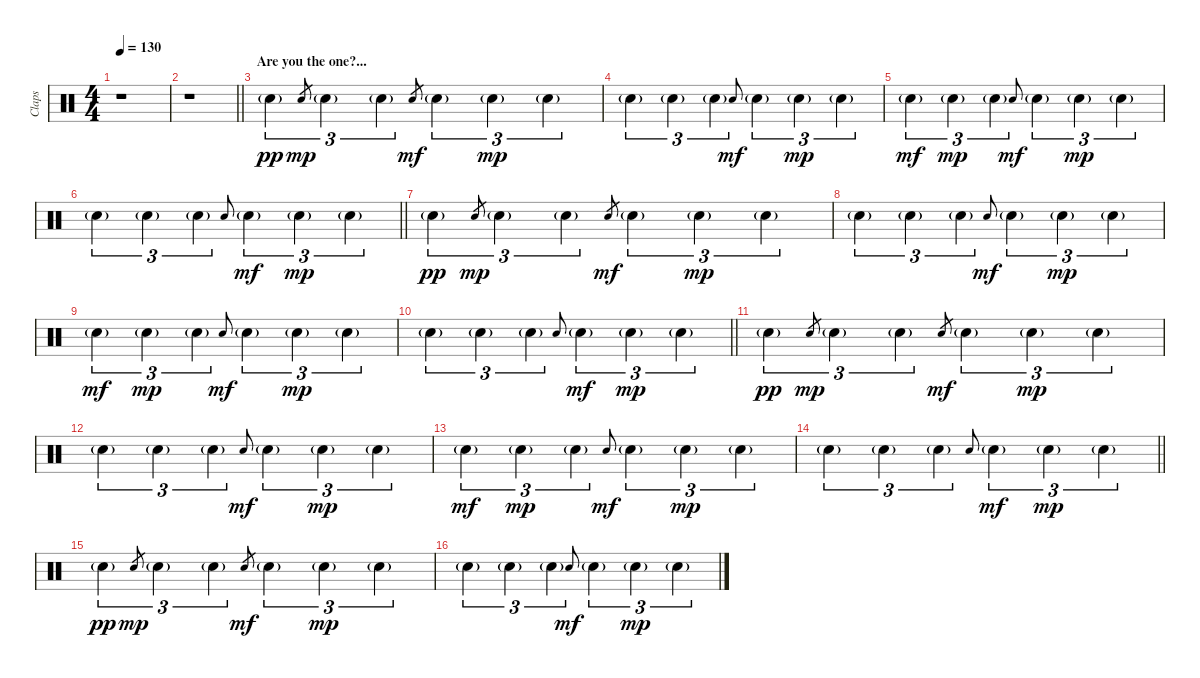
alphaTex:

\track ("Claps" "Claps") {instrument percussion}
\staff {score}
\articulation defaults
\ts (4 4)
\tempo 130
\clef neutral
\ks c
r.1{dy mp} |
\barLineRight lightlight
r.1 |
\section ("" "Are you the one?...")
"Hand Clap (hit)"{g}.4{tu (3 2) dy pp} "Hand Clap (hit)".8{gr dy mp} "Hand Clap (hit)"{g}.4{tu (3 2)} "Hand Clap (hit)"{g}.4{tu (3 2)} "Hand Clap (hit)".8{gr dy mf} "Hand Clap (hit)"{g}.4{tu (3 2)} "Hand Clap (hit)"{g}.4{tu (3 2) dy mp} "Hand Clap (hit)"{g}.4{tu (3 2)} |
"Hand Clap (hit)"{g}.4{tu (3 2)} "Hand Clap (hit)"{g}.4{tu (3 2)} "Hand Clap (hit)"{g}.4{tu (3 2)} "Hand Clap (hit)".8{gr onbeat dy mf} "Hand Clap (hit)"{g}.4{tu (3 2)} "Hand Clap (hit)"{g}.4{tu (3 2) dy mp} "Hand Clap (hit)"{g}.4{tu (3 2)} |
"Hand Clap (hit)"{g}.4{tu (3 2) dy mf} "Hand Clap (hit)"{g}.4{tu (3 2) dy mp} "Hand Clap (hit)"{g}.4{tu (3 2)} "Hand Clap (hit)".8{gr onbeat dy mf} "Hand Clap (hit)"{g}.4{tu (3 2)} "Hand Clap (hit)"{g}.4{tu (3 2) dy mp} "Hand Clap (hit)"{g}.4{tu (3 2)} |
\barLineRight lightlight "Hand Clap (hit)"{g}.4{tu (3 2)} "Hand Clap (hit)"{g}.4{tu (3 2)} "Hand Clap (hit)"{g}.4{tu (3 2)} "Hand Clap (hit)".8{gr onbeat} "Hand Clap (hit)"{g}.4{tu (3 2) dy mf} "Hand Clap (hit)"{g}.4{tu (3 2) dy mp} "Hand Clap (hit)"{g}.4{tu (3 2)}
|
"Hand Clap (hit)"{g}.4{tu (3 2) dy pp} "Hand Clap (hit)".8{gr dy mp} "Hand Clap (hit)"{g}.4{tu (3 2)} "Hand Clap (hit)"{g}.4{tu (3 2)} "Hand Clap (hit)".8{gr dy mf} "Hand Clap (hit)"{g}.4{tu (3 2)} "Hand Clap (hit)"{g}.4{tu (3 2) dy mp} "Hand Clap (hit)"{g}.4{tu (3 2)} |
"Hand Clap (hit)"{g}.4{tu (3 2)} "Hand Clap (hit)"{g}.4{tu (3 2)} "Hand Clap (hit)"{g}.4{tu (3 2)} "Hand Clap (hit)".8{gr onbeat dy mf} "Hand Clap (hit)"{g}.4{tu (3 2)} "Hand Clap (hit)"{g}.4{tu (3 2) dy mp} "Hand Clap (hit)"{g}.4{tu (3 2)} |
"Hand Clap (hit)"{g}.4{tu (3 2) dy mf} "Hand Clap (hit)"{g}.4{tu (3 2) dy mp} "Hand Clap (hit)"{g}.4{tu (3 2)} "Hand Clap (hit)".8{gr onbeat dy mf} "Hand Clap (hit)"{g}.4{tu (3 2)} "Hand Clap (hit)"{g}.4{tu (3 2) dy mp} "Hand Clap (hit)"{g}.4{tu (3 2)} |
\barLineRight lightlight "Hand Clap (hit)"{g}.4{tu (3 2)} "Hand Clap (hit)"{g}.4{tu (3 2)} "Hand Clap (hit)"{g}.4{tu (3 2)} "Hand Clap (hit)".8{gr onbeat} "Hand Clap (hit)"{g}.4{tu (3 2) dy mf} "Hand Clap (hit)"{g}.4{tu (3 2) dy mp} "Hand Clap (hit)"{g}.4{tu (3 2)}
|
"Hand Clap (hit)"{g}.4{tu (3 2) dy pp} "Hand Clap (hit)".8{gr dy mp} "Hand Clap (hit)"{g}.4{tu (3 2)} "Hand Clap (hit)"{g}.4{tu (3 2)} "Hand Clap (hit)".8{gr dy mf} "Hand Clap (hit)"{g}.4{tu (3 2)} "Hand Clap (hit)"{g}.4{tu (3 2) dy mp} "Hand Clap (hit)"{g}.4{tu (3 2)} |
"Hand Clap (hit)"{g}.4{tu (3 2)} "Hand Clap (hit)"{g}.4{tu (3 2)} "Hand Clap (hit)"{g}.4{tu (3 2)} "Hand Clap (hit)".8{gr onbeat dy mf} "Hand Clap (hit)"{g}.4{tu (3 2)} "Hand Clap (hit)"{g}.4{tu (3 2) dy mp} "Hand Clap (hit)"{g}.4{tu (3 2)} |
"Hand Clap (hit)"{g}.4{tu (3 2) dy mf} "Hand Clap (hit)"{g}.4{tu (3 2) dy mp} "Hand Clap (hit)"{g}.4{tu (3 2)} "Hand Clap (hit)".8{gr onbeat dy mf} "Hand Clap (hit)"{g}.4{tu (3 2)} "Hand Clap (hit)"{g}.4{tu (3 2) dy mp} "Hand Clap (hit)"{g}.4{tu (3 2)} |
\barLineRight lightlight "Hand Clap (hit)"{g}.4{tu (3 2)} "Hand Clap (hit)"{g}.4{tu (3 2)} "Hand Clap (hit)"{g}.4{tu (3 2)} "Hand Clap (hit)".8{gr onbeat} "Hand Clap (hit)"{g}.4{tu (3 2) dy mf} "Hand Clap (hit)"{g}.4{tu (3 2) dy mp} "Hand Clap (hit)"{g}.4{tu (3 2)}
|
"Hand Clap (hit)"{g}.4{tu (3 2) dy pp} "Hand Clap (hit)".8{gr dy mp} "Hand Clap (hit)"{g}.4{tu (3 2)} "Hand Clap (hit)"{g}.4{tu (3 2)} "Hand Clap (hit)".8{gr dy mf} "Hand Clap (hit)"{g}.4{tu (3 2)} "Hand Clap (hit)"{g}.4{tu (3 2) dy mp} "Hand Clap (hit)"{g}.4{tu (3 2)} |
"Hand Clap (hit)"{g}.4{tu (3 2)} "Hand Clap (hit)"{g}.4{tu (3 2)} "Hand Clap (hit)"{g}.4{tu (3 2)} "Hand Clap (hit)".8{gr onbeat dy mf} "Hand Clap (hit)"{g}.4{tu (3 2)} "Hand Clap (hit)"{g}.4{tu (3 2) dy mp} "Hand Clap (hit)"{g}.4{tu (3 2)}
